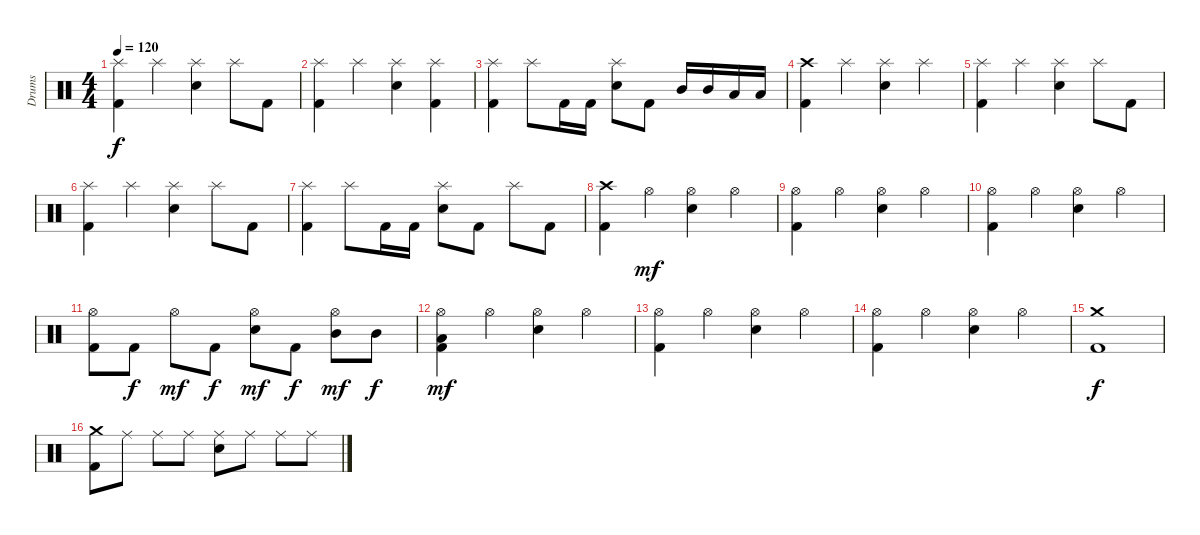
\track ("Drums" "Drums") {instrument percussion}
\staff {score}
\articulation defaults
\ts (4 4)
\tempo 120
\clef neutral
\ks c
("Kick (hit) 2" "Splash (hit)").4{dy f} "Splash (hit)".4 ("Electric Snare (hit)" "Splash (hit)").4 "Splash (hit)".8 "Kick (hit) 2".8 |
("Kick (hit) 2" "Splash (hit)").4 "Splash (hit)".4 ("Electric Snare (hit)" "Splash (hit)").4 ("Kick (hit) 2" "Splash (hit)").4 |
("Kick (hit) 2" "Splash (hit)").4 "Splash (hit)".8 "Kick (hit) 2".16 "Kick (hit) 2".16 ("Electric Snare (hit)" "Splash (hit)").8 "Kick (hit) 2".8 "Mid Tom (hit)".16 "Mid Tom (hit)".16 "Low Tom (hit)".16 "Low Tom (hit)".16 |
("Kick (hit) 2" "Crash high (hit)").4 "Splash (hit)".4 ("Electric Snare (hit)" "Splash (hit)").4 "Splash (hit)".4 |
("Kick (hit) 2" "Splash (hit)").4 "Splash (hit)".4 ("Electric Snare (hit)" "Splash (hit)").4 "Splash (hit)".8 "Kick (hit) 2".8 |
("Kick (hit) 2" "Splash (hit)").4 "Splash (hit)".4 ("Electric Snare (hit)" "Splash (hit)").4 "Splash (hit)".8 "Kick (hit) 2".8 |
("Kick (hit) 2" "Splash (hit)").4 "Splash (hit)".8 "Kick (hit) 2".16 "Kick (hit) 2".16 ("Electric Snare (hit)" "Splash (hit)").8 "Kick (hit) 2".8 "Splash (hit)".8 "Kick (hit) 2".8 |
("Kick (hit) 2" "Crash high (hit)").4 "Hi-Hat (open)".4{dy mf} ("Electric Snare (hit)" "Hi-Hat (open)").4 "Hi-Hat (open)".4 |
("Kick (hit) 2" "Hi-Hat (open)").4 "Hi-Hat (open)".4 ("Electric Snare (hit)" "Hi-Hat (open)").4 "Hi-Hat (open)".4 |
("Kick (hit) 2" "Hi-Hat (open)").4 "Hi-Hat (open)".4 ("Electric Snare (hit)" "Hi-Hat (open)").4 "Hi-Hat (open)".4 |
("Kick (hit) 2" "Hi-Hat (open)").8 "Kick (hit) 2".8{dy f} "Hi-Hat (open)".8{dy mf} "Kick (hit) 2".8{dy f} ("Electric Snare (hit)" "Hi-Hat (open)").8{dy mf} "Kick (hit) 2".8{dy f} ("Mid Tom (hit)" "Hi-Hat (open)").8{dy mf} "Mid Tom (hit)".8{dy f} |
("Kick (hit) 2" "Low Tom (hit)" "Hi-Hat (open)").4{dy mf} "Hi-Hat (open)".4 ("Electric Snare (hit)" "Hi-Hat (open)").4 "Hi-Hat (open)".4 |
("Kick (hit) 2" "Hi-Hat (open)").4 "Hi-Hat (open)".4 ("Electric Snare (hit)" "Hi-Hat (open)").4 "Hi-Hat (open)".4 |
("Kick (hit) 2" "Hi-Hat (open)").4 "Hi-Hat (open)".4 ("Electric Snare (hit)" "Hi-Hat (open)").4 "Hi-Hat (open)".4 |
("Kick (hit) 2" "Crash medium (hit)").1{dy f} |
("Kick (hit) 2" "Crash medium (hit)").8 "Ride (middle)".8 "Ride (middle)".8 "Ride (middle)".8 ("Electric Snare (hit)" "Ride (middle)").8 "Ride (middle)".8 "Ride (middle)".8 "Ride (middle)".8
